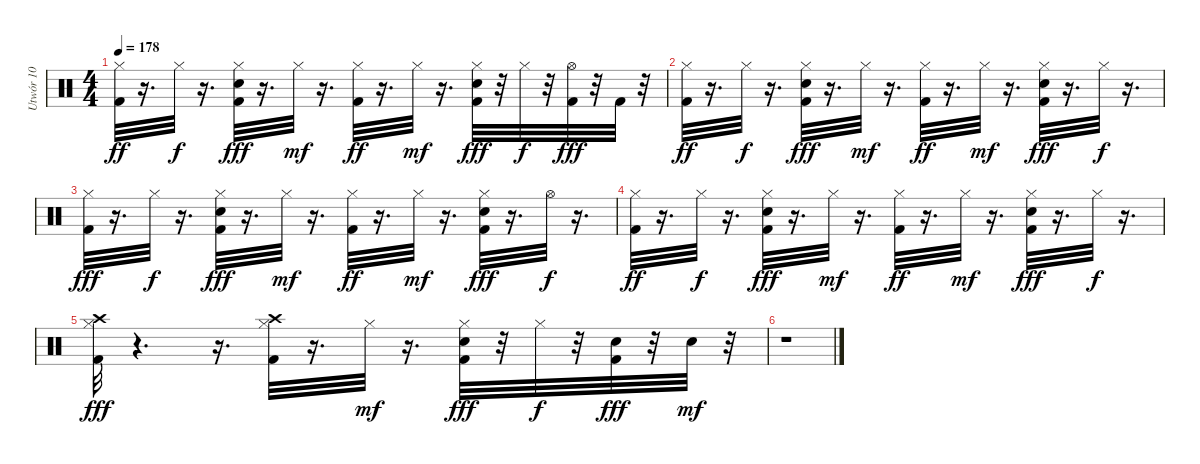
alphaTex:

\track ("Utwór 10" "Utwór 10") {instrument percussion}
\staff {score}
\articulation defaults
\ts (4 4)
\tempo 178
\clef neutral
\ks c
("Kick (hit) 2" "Hi-Hat (closed)").32{dy ff} r.16{d} "Hi-Hat (closed)".32{dy f} r.16{d} ("Kick (hit) 2" "Electric Snare (hit)" "Hi-Hat (closed)").32{dy fff} r.16{d} "Hi-Hat (closed)".32{dy mf} r.16{d} ("Kick (hit) 2" "Hi-Hat (closed)").32{dy ff} r.16{d} "Hi-Hat (closed)".32{dy mf} r.16{d} ("Kick (hit) 2" "Electric Snare (hit)" "Hi-Hat (closed)").32{dy fff} r.32 "Hi-Hat (closed)".32{dy f} r.32 ("Hi-Hat (open)" "Kick (hit) 2").32{dy fff} r.32 "Kick (hit) 2".32 r.32 |
("Kick (hit) 2" "Hi-Hat (closed)").32{dy ff} r.16{d} "Hi-Hat (closed)".32{dy f} r.16{d} ("Kick (hit) 2" "Electric Snare (hit)" "Hi-Hat (closed)").32{dy fff} r.16{d} "Hi-Hat (closed)".32{dy mf} r.16{d} ("Kick (hit) 2" "Hi-Hat (closed)").32{dy ff} r.16{d} "Hi-Hat (closed)".32{dy mf} r.16{d} ("Kick (hit) 2" "Electric Snare (hit)" "Hi-Hat (closed)").32{dy fff} r.16{d} "Hi-Hat (closed)".32{dy f} r.16{d} |
("Kick (hit) 2" "Hi-Hat (closed)").32{dy fff} r.16{d} "Hi-Hat (closed)".32{dy f} r.16{d} ("Kick (hit) 2" "Electric Snare (hit)" "Hi-Hat (closed)").32{dy fff} r.16{d} "Hi-Hat (closed)".32{dy mf} r.16{d} ("Kick (hit) 2" "Hi-Hat (closed)").32{dy ff} r.16{d} "Hi-Hat (closed)".32{dy mf} r.16{d} ("Kick (hit) 2" "Electric Snare (hit)" "Hi-Hat (closed)").32{dy fff} r.16{d} "Hi-Hat (open)".32{dy f} r.16{d} |
("Kick (hit) 2" "Hi-Hat (closed)").32{dy ff} r.16{d} "Hi-Hat (closed)".32{dy f} r.16{d} ("Kick (hit) 2" "Electric Snare (hit)" "Hi-Hat (closed)").32{dy fff} r.16{d} "Hi-Hat (closed)".32{dy mf} r.16{d} ("Kick (hit) 2" "Hi-Hat (closed)").32{dy ff} r.16{d} "Hi-Hat (closed)".32{dy mf} r.16{d} ("Kick (hit) 2" "Electric Snare (hit)" "Hi-Hat (closed)").32{dy fff} r.16{d} "Hi-Hat (closed)".32{dy f} r.16{d} |
("Kick (hit) 2" "Hi-Hat (closed)" "Crash high (hit)").32{dy fff} r.4{d} r.16{d} ("Kick (hit) 2" "Hi-Hat (closed)" "Crash high (hit)").32 r.16{d} "Hi-Hat (closed)".32{dy mf} r.16{d} ("Kick (hit) 2" "Electric Snare (hit)" "Hi-Hat (closed)").32{dy fff} r.32 "Hi-Hat (closed)".32{dy f} r.32 ("Electric Snare (hit)" "Kick (hit) 2").32{dy fff} r.32 "Electric Snare (hit)".32{dy mf} r.32 |
r.1
